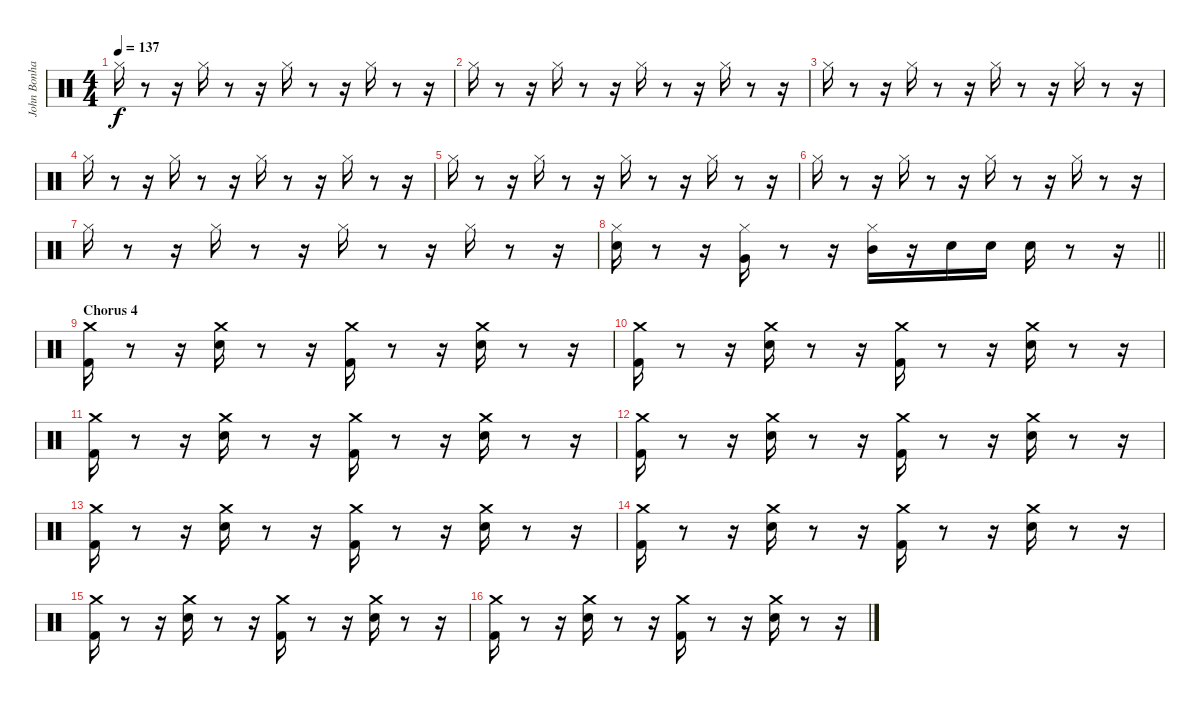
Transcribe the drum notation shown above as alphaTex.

\track ("John Bonham" "John Bonha") {instrument percussion}
\staff {score}
\articulation defaults
\ts (4 4)
\tempo 137
\clef neutral
\ks aminor "Hi-Hat (closed)".16{dy f}
r.8 r.16 "Hi-Hat (closed)".16 r.8 r.16 "Hi-Hat (closed)".16 r.8 r.16 "Hi-Hat (closed)".16 r.8 r.16 |
"Hi-Hat (closed)".16 r.8 r.16 "Hi-Hat (closed)".16 r.8 r.16 "Hi-Hat (closed)".16 r.8 r.16 "Hi-Hat (closed)".16 r.8 r.16 |
\ks c "Hi-Hat (closed)".16
r.8 r.16 "Hi-Hat (closed)".16 r.8 r.16 "Hi-Hat (closed)".16 r.8 r.16 "Hi-Hat (closed)".16 r.8 r.16 |
"Hi-Hat (closed)".16 r.8 r.16 "Hi-Hat (closed)".16 r.8 r.16 "Hi-Hat (closed)".16 r.8 r.16 "Hi-Hat (closed)".16 r.8 r.16 |
\ks aminor "Hi-Hat (closed)".16
r.8 r.16 "Hi-Hat (closed)".16 r.8 r.16 "Hi-Hat (closed)".16 r.8 r.16 "Hi-Hat (closed)".16 r.8 r.16 |
"Hi-Hat (closed)".16 r.8 r.16 "Hi-Hat (closed)".16 r.8 r.16 "Hi-Hat (closed)".16 r.8 r.16 "Hi-Hat (closed)".16 r.8 r.16 |
"Hi-Hat (closed)".16 r.8 r.16 "Hi-Hat (closed)".16 r.8 r.16 "Hi-Hat (closed)".16 r.8 r.16 "Hi-Hat (closed)".16 r.8 r.16 |
\barLineRight lightlight
("Hi-Hat (closed)" "Electric Snare (hit)").16 r.8 r.16 ("Hi-Hat (closed)" "Very Low Tom (hit)").16 r.8 r.16 ("Hi-Hat (closed)" "Mid Tom (hit)").16 r.16 "Electric Snare (hit)".16 "Electric Snare (hit)".16 "Electric Snare (hit)".16 r.8 r.16 |
\section ("" "Chorus 4")
("Kick (hit) 2" "Crash medium (hit)").16 r.8 r.16 ("Electric Snare (hit)" "Crash medium (hit)").16 r.8 r.16 ("Kick (hit) 2" "Crash medium (hit)").16 r.8 r.16 ("Electric Snare (hit)" "Crash medium (hit)").16 r.8 r.16 |
("Kick (hit) 2" "Crash medium (hit)").16 r.8 r.16 ("Electric Snare (hit)" "Crash medium (hit)").16 r.8 r.16 ("Kick (hit) 2" "Crash medium (hit)").16 r.8 r.16 ("Electric Snare (hit)" "Crash medium (hit)").16 r.8 r.16 |
("Kick (hit) 2" "Crash medium (hit)").16 r.8 r.16 ("Electric Snare (hit)" "Crash medium (hit)").16 r.8 r.16 ("Kick (hit) 2" "Crash medium (hit)").16 r.8 r.16 ("Electric Snare (hit)" "Crash medium (hit)").16 r.8 r.16 |
("Kick (hit) 2" "Crash medium (hit)").16 r.8 r.16 ("Electric Snare (hit)" "Crash medium (hit)").16 r.8 r.16 ("Kick (hit) 2" "Crash medium (hit)").16 r.8 r.16 ("Electric Snare (hit)" "Crash medium (hit)").16 r.8 r.16 |
("Kick (hit) 2" "Crash medium (hit)").16 r.8 r.16 ("Electric Snare (hit)" "Crash medium (hit)").16 r.8 r.16 ("Kick (hit) 2" "Crash medium (hit)").16 r.8 r.16 ("Electric Snare (hit)" "Crash medium (hit)").16 r.8 r.16 |
("Kick (hit) 2" "Crash medium (hit)").16 r.8 r.16 ("Electric Snare (hit)" "Crash medium (hit)").16 r.8 r.16 ("Kick (hit) 2" "Crash medium (hit)").16 r.8 r.16 ("Electric Snare (hit)" "Crash medium (hit)").16 r.8 r.16 |
("Kick (hit) 2" "Crash medium (hit)").16 r.8 r.16 ("Electric Snare (hit)" "Crash medium (hit)").16 r.8 r.16 ("Kick (hit) 2" "Crash medium (hit)").16 r.8 r.16 ("Electric Snare (hit)" "Crash medium (hit)").16 r.8 r.16 |
("Kick (hit) 2" "Crash medium (hit)").16 r.8 r.16 ("Electric Snare (hit)" "Crash medium (hit)").16 r.8 r.16 ("Kick (hit) 2" "Crash medium (hit)").16 r.8 r.16 ("Electric Snare (hit)" "Crash medium (hit)").16 r.8 r.16
